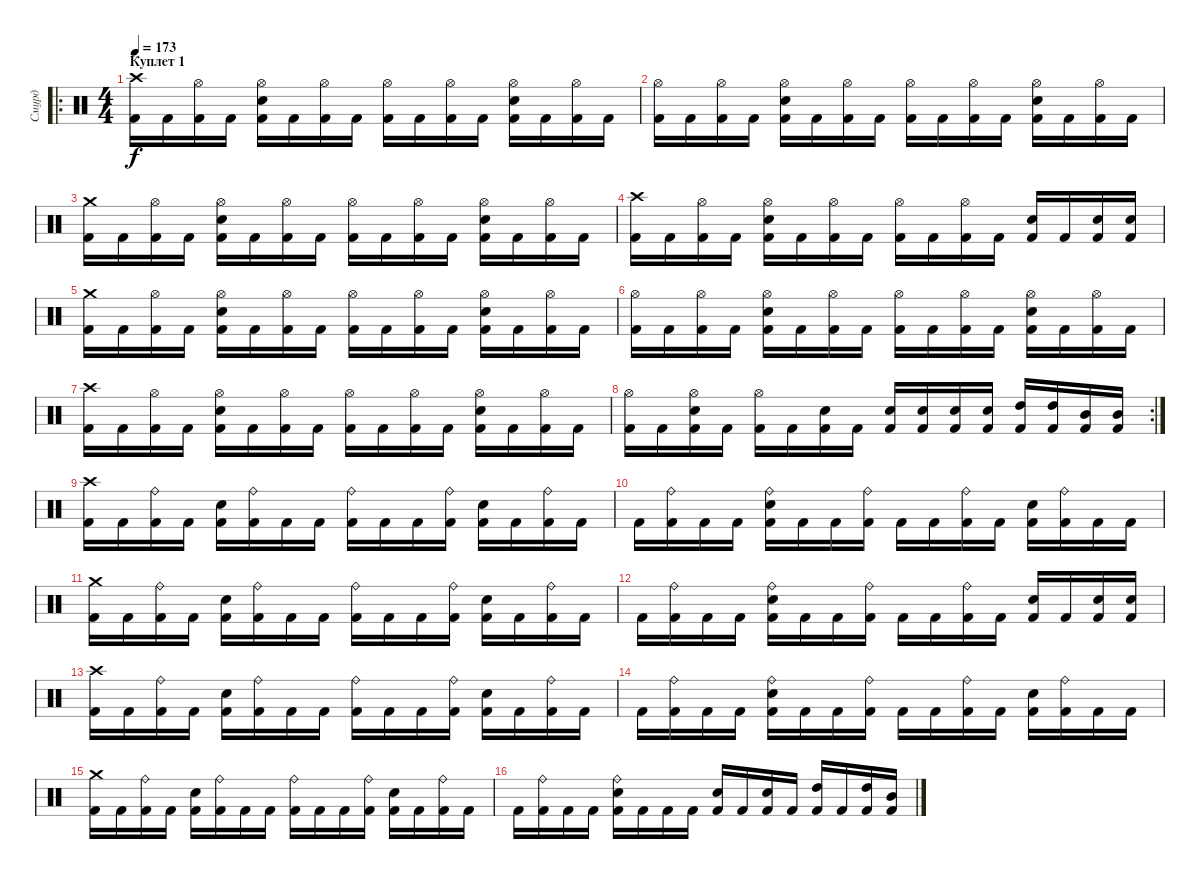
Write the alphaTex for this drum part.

\track ("Смурд" "Смурд") {instrument percussion}
\staff {score}
\articulation defaults
\ro
\ts (4 4)
\section ("" "Куплет 1")
\tempo 173
\clef neutral
\ks c
("Crash high (hit)" "Kick (hit) 2").16{dy f} "Kick (hit) 2".16 ("Hi-Hat (open)" "Kick (hit) 2").16 "Kick (hit) 2".16 ("Hi-Hat (open)" "Electric Snare (hit)" "Kick (hit) 2").16 "Kick (hit) 2".16 ("Hi-Hat (open)" "Kick (hit) 2").16 "Kick (hit) 2".16 ("Hi-Hat (open)" "Kick (hit) 2").16 "Kick (hit) 2".16 ("Hi-Hat (open)" "Kick (hit) 2").16 "Kick (hit) 2".16 ("Hi-Hat (open)" "Electric Snare (hit)" "Kick (hit) 2").16 "Kick (hit) 2".16 ("Hi-Hat (open)" "Kick (hit) 2").16 "Kick (hit) 2".16 |
("Hi-Hat (open)" "Kick (hit) 2").16 "Kick (hit) 2".16 ("Hi-Hat (open)" "Kick (hit) 2").16 "Kick (hit) 2".16 ("Hi-Hat (open)" "Electric Snare (hit)" "Kick (hit) 2").16 "Kick (hit) 2".16 ("Hi-Hat (open)" "Kick (hit) 2").16 "Kick (hit) 2".16 ("Hi-Hat (open)" "Kick (hit) 2").16 "Kick (hit) 2".16 ("Hi-Hat (open)" "Kick (hit) 2").16 "Kick (hit) 2".16 ("Hi-Hat (open)" "Electric Snare (hit)" "Kick (hit) 2").16 "Kick (hit) 2".16 ("Hi-Hat (open)" "Kick (hit) 2").16 "Kick (hit) 2".16 |
("Crash medium (hit)" "Kick (hit) 2").16 "Kick (hit) 2".16 ("Hi-Hat (open)" "Kick (hit) 2").16 "Kick (hit) 2".16 ("Hi-Hat (open)" "Electric Snare (hit)" "Kick (hit) 2").16 "Kick (hit) 2".16 ("Hi-Hat (open)" "Kick (hit) 2").16 "Kick (hit) 2".16 ("Hi-Hat (open)" "Kick (hit) 2").16 "Kick (hit) 2".16 ("Hi-Hat (open)" "Kick (hit) 2").16 "Kick (hit) 2".16 ("Hi-Hat (open)" "Electric Snare (hit)" "Kick (hit) 2").16 "Kick (hit) 2".16 ("Hi-Hat (open)" "Kick (hit) 2").16 "Kick (hit) 2".16 |
("Crash high (hit)" "Kick (hit) 2").16 "Kick (hit) 2".16 ("Hi-Hat (open)" "Kick (hit) 2").16 "Kick (hit) 2".16 ("Hi-Hat (open)" "Electric Snare (hit)" "Kick (hit) 2").16 "Kick (hit) 2".16 ("Hi-Hat (open)" "Kick (hit) 2").16 "Kick (hit) 2".16 ("Hi-Hat (open)" "Kick (hit) 2").16 "Kick (hit) 2".16 ("Hi-Hat (open)" "Kick (hit) 2").16 "Kick (hit) 2".16 ("Electric Snare (hit)" "Kick (hit) 2").16 "Kick (hit) 2".16 ("Electric Snare (hit)" "Kick (hit) 2").16 ("Electric Snare (hit)" "Kick (hit) 2").16 |
("Crash medium (hit)" "Kick (hit) 2").16 "Kick (hit) 2".16 ("Hi-Hat (open)" "Kick (hit) 2").16 "Kick (hit) 2".16 ("Hi-Hat (open)" "Electric Snare (hit)" "Kick (hit) 2").16 "Kick (hit) 2".16 ("Hi-Hat (open)" "Kick (hit) 2").16 "Kick (hit) 2".16 ("Hi-Hat (open)" "Kick (hit) 2").16 "Kick (hit) 2".16 ("Hi-Hat (open)" "Kick (hit) 2").16 "Kick (hit) 2".16 ("Hi-Hat (open)" "Electric Snare (hit)" "Kick (hit) 2").16 "Kick (hit) 2".16 ("Hi-Hat (open)" "Kick (hit) 2").16 "Kick (hit) 2".16 |
("Hi-Hat (open)" "Kick (hit) 2").16 "Kick (hit) 2".16 ("Hi-Hat (open)" "Kick (hit) 2").16 "Kick (hit) 2".16 ("Hi-Hat (open)" "Electric Snare (hit)" "Kick (hit) 2").16 "Kick (hit) 2".16 ("Hi-Hat (open)" "Kick (hit) 2").16 "Kick (hit) 2".16 ("Hi-Hat (open)" "Kick (hit) 2").16 "Kick (hit) 2".16 ("Hi-Hat (open)" "Kick (hit) 2").16 "Kick (hit) 2".16 ("Hi-Hat (open)" "Electric Snare (hit)" "Kick (hit) 2").16 "Kick (hit) 2".16 ("Hi-Hat (open)" "Kick (hit) 2").16 "Kick (hit) 2".16 |
("Crash high (hit)" "Kick (hit) 2").16 "Kick (hit) 2".16 ("Hi-Hat (open)" "Kick (hit) 2").16 "Kick (hit) 2".16 ("Hi-Hat (open)" "Electric Snare (hit)" "Kick (hit) 2").16 "Kick (hit) 2".16 ("Hi-Hat (open)" "Kick (hit) 2").16 "Kick (hit) 2".16 ("Hi-Hat (open)" "Kick (hit) 2").16 "Kick (hit) 2".16 ("Hi-Hat (open)" "Kick (hit) 2").16 "Kick (hit) 2".16 ("Hi-Hat (open)" "Electric Snare (hit)" "Kick (hit) 2").16 "Kick (hit) 2".16 ("Hi-Hat (open)" "Kick (hit) 2").16 "Kick (hit) 2".16 |
\rc 2
("Hi-Hat (open)" "Kick (hit) 2").16 "Kick (hit) 2".16 ("Hi-Hat (open)" "Electric Snare (hit)" "Kick (hit) 2").16 "Kick (hit) 2".16 ("Hi-Hat (open)" "Kick (hit) 2").16 "Kick (hit) 2".16 ("Electric Snare (hit)" "Kick (hit) 2").16 "Kick (hit) 2".16 ("Electric Snare (hit)" "Kick (hit) 2").16 ("Electric Snare (hit)" "Kick (hit) 2").16 ("Electric Snare (hit)" "Kick (hit) 2").16 ("Electric Snare (hit)" "Kick (hit) 2").16 ("High Tom (hit)" "Kick (hit) 2").16 ("High Tom (hit)" "Kick (hit) 2").16 ("Mid Tom (hit)" "Kick (hit) 2").16 ("Mid Tom (hit)" "Kick (hit) 2").16 |
("Crash high (hit)" "Kick (hit) 2").16 "Kick (hit) 2".16 ("Ride (bell)" "Kick (hit) 2").16 "Kick (hit) 2".16 ("Electric Snare (hit)" "Kick (hit) 2").16 ("Ride (bell)" "Kick (hit) 2").16 "Kick (hit) 2".16 "Kick (hit) 2".16 ("Ride (bell)" "Kick (hit) 2").16 "Kick (hit) 2".16 "Kick (hit) 2".16 ("Ride (bell)" "Kick (hit) 2").16 ("Electric Snare (hit)" "Kick (hit) 2").16 "Kick (hit) 2".16 ("Ride (bell)" "Kick (hit) 2").16 "Kick (hit) 2".16 |
"Kick (hit) 2".16 ("Ride (bell)" "Kick (hit) 2").16 "Kick (hit) 2".16 "Kick (hit) 2".16 ("Ride (bell)" "Electric Snare (hit)" "Kick (hit) 2").16 "Kick (hit) 2".16 "Kick (hit) 2".16 ("Ride (bell)" "Kick (hit) 2").16 "Kick (hit) 2".16 "Kick (hit) 2".16 ("Ride (bell)" "Kick (hit) 2").16 "Kick (hit) 2".16 ("Electric Snare (hit)" "Kick (hit) 2").16 ("Ride (bell)" "Kick (hit) 2").16 "Kick (hit) 2".16 "Kick (hit) 2".16 |
("Crash medium (hit)" "Kick (hit) 2").16 "Kick (hit) 2".16 ("Ride (bell)" "Kick (hit) 2").16 "Kick (hit) 2".16 ("Electric Snare (hit)" "Kick (hit) 2").16 ("Ride (bell)" "Kick (hit) 2").16 "Kick (hit) 2".16 "Kick (hit) 2".16 ("Ride (bell)" "Kick (hit) 2").16 "Kick (hit) 2".16 "Kick (hit) 2".16 ("Ride (bell)" "Kick (hit) 2").16 ("Electric Snare (hit)" "Kick (hit) 2").16 "Kick (hit) 2".16 ("Ride (bell)" "Kick (hit) 2").16 "Kick (hit) 2".16 |
"Kick (hit) 2".16 ("Ride (bell)" "Kick (hit) 2").16 "Kick (hit) 2".16 "Kick (hit) 2".16 ("Ride (bell)" "Electric Snare (hit)" "Kick (hit) 2").16 "Kick (hit) 2".16 "Kick (hit) 2".16 ("Ride (bell)" "Kick (hit) 2").16 "Kick (hit) 2".16 "Kick (hit) 2".16 ("Ride (bell)" "Kick (hit) 2").16 "Kick (hit) 2".16 ("Electric Snare (hit)" "Kick (hit) 2").16 "Kick (hit) 2".16 ("Electric Snare (hit)" "Kick (hit) 2").16 ("Electric Snare (hit)" "Kick (hit) 2").16 |
("Crash high (hit)" "Kick (hit) 2").16 "Kick (hit) 2".16 ("Ride (bell)" "Kick (hit) 2").16 "Kick (hit) 2".16 ("Electric Snare (hit)" "Kick (hit) 2").16 ("Ride (bell)" "Kick (hit) 2").16 "Kick (hit) 2".16 "Kick (hit) 2".16 ("Ride (bell)" "Kick (hit) 2").16 "Kick (hit) 2".16 "Kick (hit) 2".16 ("Ride (bell)" "Kick (hit) 2").16 ("Electric Snare (hit)" "Kick (hit) 2").16 "Kick (hit) 2".16 ("Ride (bell)" "Kick (hit) 2").16 "Kick (hit) 2".16 |
"Kick (hit) 2".16 ("Ride (bell)" "Kick (hit) 2").16 "Kick (hit) 2".16 "Kick (hit) 2".16 ("Ride (bell)" "Electric Snare (hit)" "Kick (hit) 2").16 "Kick (hit) 2".16 "Kick (hit) 2".16 ("Ride (bell)" "Kick (hit) 2").16 "Kick (hit) 2".16 "Kick (hit) 2".16 ("Ride (bell)" "Kick (hit) 2").16 "Kick (hit) 2".16 ("Electric Snare (hit)" "Kick (hit) 2").16 ("Ride (bell)" "Kick (hit) 2").16 "Kick (hit) 2".16 "Kick (hit) 2".16 |
("Crash medium (hit)" "Kick (hit) 2").16 "Kick (hit) 2".16 ("Ride (bell)" "Kick (hit) 2").16 "Kick (hit) 2".16 ("Electric Snare (hit)" "Kick (hit) 2").16 ("Ride (bell)" "Kick (hit) 2").16 "Kick (hit) 2".16 "Kick (hit) 2".16 ("Ride (bell)" "Kick (hit) 2").16 "Kick (hit) 2".16 "Kick (hit) 2".16 ("Ride (bell)" "Kick (hit) 2").16 ("Electric Snare (hit)" "Kick (hit) 2").16 "Kick (hit) 2".16 ("Ride (bell)" "Kick (hit) 2").16 "Kick (hit) 2".16 |
"Kick (hit) 2".16 ("Ride (bell)" "Kick (hit) 2").16 "Kick (hit) 2".16 "Kick (hit) 2".16 ("Ride (bell)" "Electric Snare (hit)" "Kick (hit) 2").16 "Kick (hit) 2".16 "Kick (hit) 2".16 "Kick (hit) 2".16 ("Electric Snare (hit)" "Kick (hit) 2").16 "Kick (hit) 2".16 ("Electric Snare (hit)" "Kick (hit) 2").16 "Kick (hit) 2".16 ("High Tom (hit)" "Kick (hit) 2").16 "Kick (hit) 2".16 ("High Tom (hit)" "Kick (hit) 2").16 ("Mid Tom (hit)" "Kick (hit) 2").16
